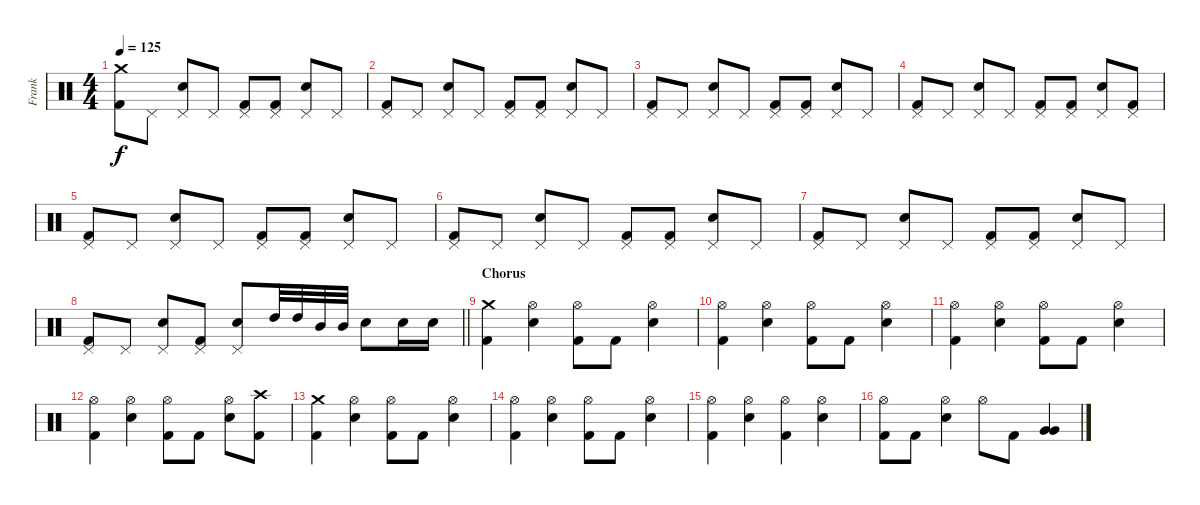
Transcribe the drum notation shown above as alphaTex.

\track ("Frank" "Frank") {instrument percussion}
\staff {score}
\articulation defaults
\ts (4 4)
\tempo 125
\clef neutral
\ks c
("Crash medium (hit)" "Kick (hit) 2").8{dy f} "Pedal Hi-Hat (hit)".8 ("Pedal Hi-Hat (hit)" "Electric Snare (hit)").8 "Pedal Hi-Hat (hit)".8 ("Pedal Hi-Hat (hit)" "Kick (hit) 2").8 ("Pedal Hi-Hat (hit)" "Kick (hit) 2").8 ("Pedal Hi-Hat (hit)" "Electric Snare (hit)").8 "Pedal Hi-Hat (hit)".8 |
("Pedal Hi-Hat (hit)" "Kick (hit) 2").8 "Pedal Hi-Hat (hit)".8 ("Pedal Hi-Hat (hit)" "Electric Snare (hit)").8 "Pedal Hi-Hat (hit)".8 ("Pedal Hi-Hat (hit)" "Kick (hit) 2").8 ("Pedal Hi-Hat (hit)" "Kick (hit) 2").8 ("Pedal Hi-Hat (hit)" "Electric Snare (hit)").8 "Pedal Hi-Hat (hit)".8 |
("Pedal Hi-Hat (hit)" "Kick (hit) 2").8 "Pedal Hi-Hat (hit)".8 ("Pedal Hi-Hat (hit)" "Electric Snare (hit)").8 "Pedal Hi-Hat (hit)".8 ("Pedal Hi-Hat (hit)" "Kick (hit) 2").8 ("Pedal Hi-Hat (hit)" "Kick (hit) 2").8 ("Pedal Hi-Hat (hit)" "Electric Snare (hit)").8 "Pedal Hi-Hat (hit)".8 |
("Pedal Hi-Hat (hit)" "Kick (hit) 2").8 "Pedal Hi-Hat (hit)".8 ("Pedal Hi-Hat (hit)" "Electric Snare (hit)").8 "Pedal Hi-Hat (hit)".8 ("Pedal Hi-Hat (hit)" "Kick (hit) 2").8 ("Pedal Hi-Hat (hit)" "Kick (hit) 2").8 ("Pedal Hi-Hat (hit)" "Electric Snare (hit)").8 ("Pedal Hi-Hat (hit)" "Kick (hit) 2").8 |
("Pedal Hi-Hat (hit)" "Kick (hit) 2").8 "Pedal Hi-Hat (hit)".8 ("Pedal Hi-Hat (hit)" "Electric Snare (hit)").8 "Pedal Hi-Hat (hit)".8 ("Pedal Hi-Hat (hit)" "Kick (hit) 2").8 ("Pedal Hi-Hat (hit)" "Kick (hit) 2").8 ("Pedal Hi-Hat (hit)" "Electric Snare (hit)").8 "Pedal Hi-Hat (hit)".8 |
("Pedal Hi-Hat (hit)" "Kick (hit) 2").8 "Pedal Hi-Hat (hit)".8 ("Pedal Hi-Hat (hit)" "Electric Snare (hit)").8 "Pedal Hi-Hat (hit)".8 ("Pedal Hi-Hat (hit)" "Kick (hit) 2").8 ("Pedal Hi-Hat (hit)" "Kick (hit) 2").8 ("Pedal Hi-Hat (hit)" "Electric Snare (hit)").8 "Pedal Hi-Hat (hit)".8 |
("Pedal Hi-Hat (hit)" "Kick (hit) 2").8 "Pedal Hi-Hat (hit)".8 ("Pedal Hi-Hat (hit)" "Electric Snare (hit)").8 "Pedal Hi-Hat (hit)".8 ("Pedal Hi-Hat (hit)" "Kick (hit) 2").8 ("Pedal Hi-Hat (hit)" "Kick (hit) 2").8 ("Pedal Hi-Hat (hit)" "Electric Snare (hit)").8 "Pedal Hi-Hat (hit)".8 |
\barLineRight lightlight
("Pedal Hi-Hat (hit)" "Kick (hit) 2").8 "Pedal Hi-Hat (hit)".8 ("Pedal Hi-Hat (hit)" "Electric Snare (hit)").8 ("Pedal Hi-Hat (hit)" "Kick (hit) 2").8 ("Pedal Hi-Hat (hit)" "Electric Snare (hit)").8 "High Tom (hit)".32 "High Tom (hit)".32 "Mid Tom (hit)".32 "Mid Tom (hit)".32 "Electric Snare (hit)".8 "Electric Snare (hit)".16 "Electric Snare (hit)".16 |
\section ("" "Chorus")
("Crash medium (hit)" "Kick (hit) 2").4 ("Hi-Hat (open)" "Electric Snare (hit)").4 ("Hi-Hat (open)" "Kick (hit) 2").8 "Kick (hit) 2".8 ("Hi-Hat (open)" "Electric Snare (hit)").4 |
("Hi-Hat (open)" "Kick (hit) 2").4 ("Hi-Hat (open)" "Electric Snare (hit)").4 ("Hi-Hat (open)" "Kick (hit) 2").8 "Kick (hit) 2".8 ("Hi-Hat (open)" "Electric Snare (hit)").4 |
("Hi-Hat (open)" "Kick (hit) 2").4 ("Hi-Hat (open)" "Electric Snare (hit)").4 ("Hi-Hat (open)" "Kick (hit) 2").8 "Kick (hit) 2".8 ("Hi-Hat (open)" "Electric Snare (hit)").4 |
("Hi-Hat (open)" "Kick (hit) 2").4 ("Hi-Hat (open)" "Electric Snare (hit)").4 ("Hi-Hat (open)" "Kick (hit) 2").8 "Kick (hit) 2".8 ("Hi-Hat (open)" "Electric Snare (hit)").8 ("Crash high (hit)" "Kick (hit) 2").8 |
("Crash medium (hit)" "Kick (hit) 2").4 ("Hi-Hat (open)" "Electric Snare (hit)").4 ("Hi-Hat (open)" "Kick (hit) 2").8 "Kick (hit) 2".8 ("Hi-Hat (open)" "Electric Snare (hit)").4 |
("Hi-Hat (open)" "Kick (hit) 2").4 ("Hi-Hat (open)" "Electric Snare (hit)").4 ("Hi-Hat (open)" "Kick (hit) 2").8 "Kick (hit) 2".8 ("Hi-Hat (open)" "Electric Snare (hit)").4 |
("Hi-Hat (open)" "Kick (hit) 2").4 ("Hi-Hat (open)" "Electric Snare (hit)").4 ("Hi-Hat (open)" "Kick (hit) 2").4 ("Hi-Hat (open)" "Electric Snare (hit)").4 |
("Hi-Hat (open)" "Kick (hit) 2").8 "Kick (hit) 2".8 ("Hi-Hat (open)" "Electric Snare (hit)").4 "Hi-Hat (open)".8 "Kick (hit) 2".8 ("Very Low Tom (hit)" "Very Low Tom (hit)").4
